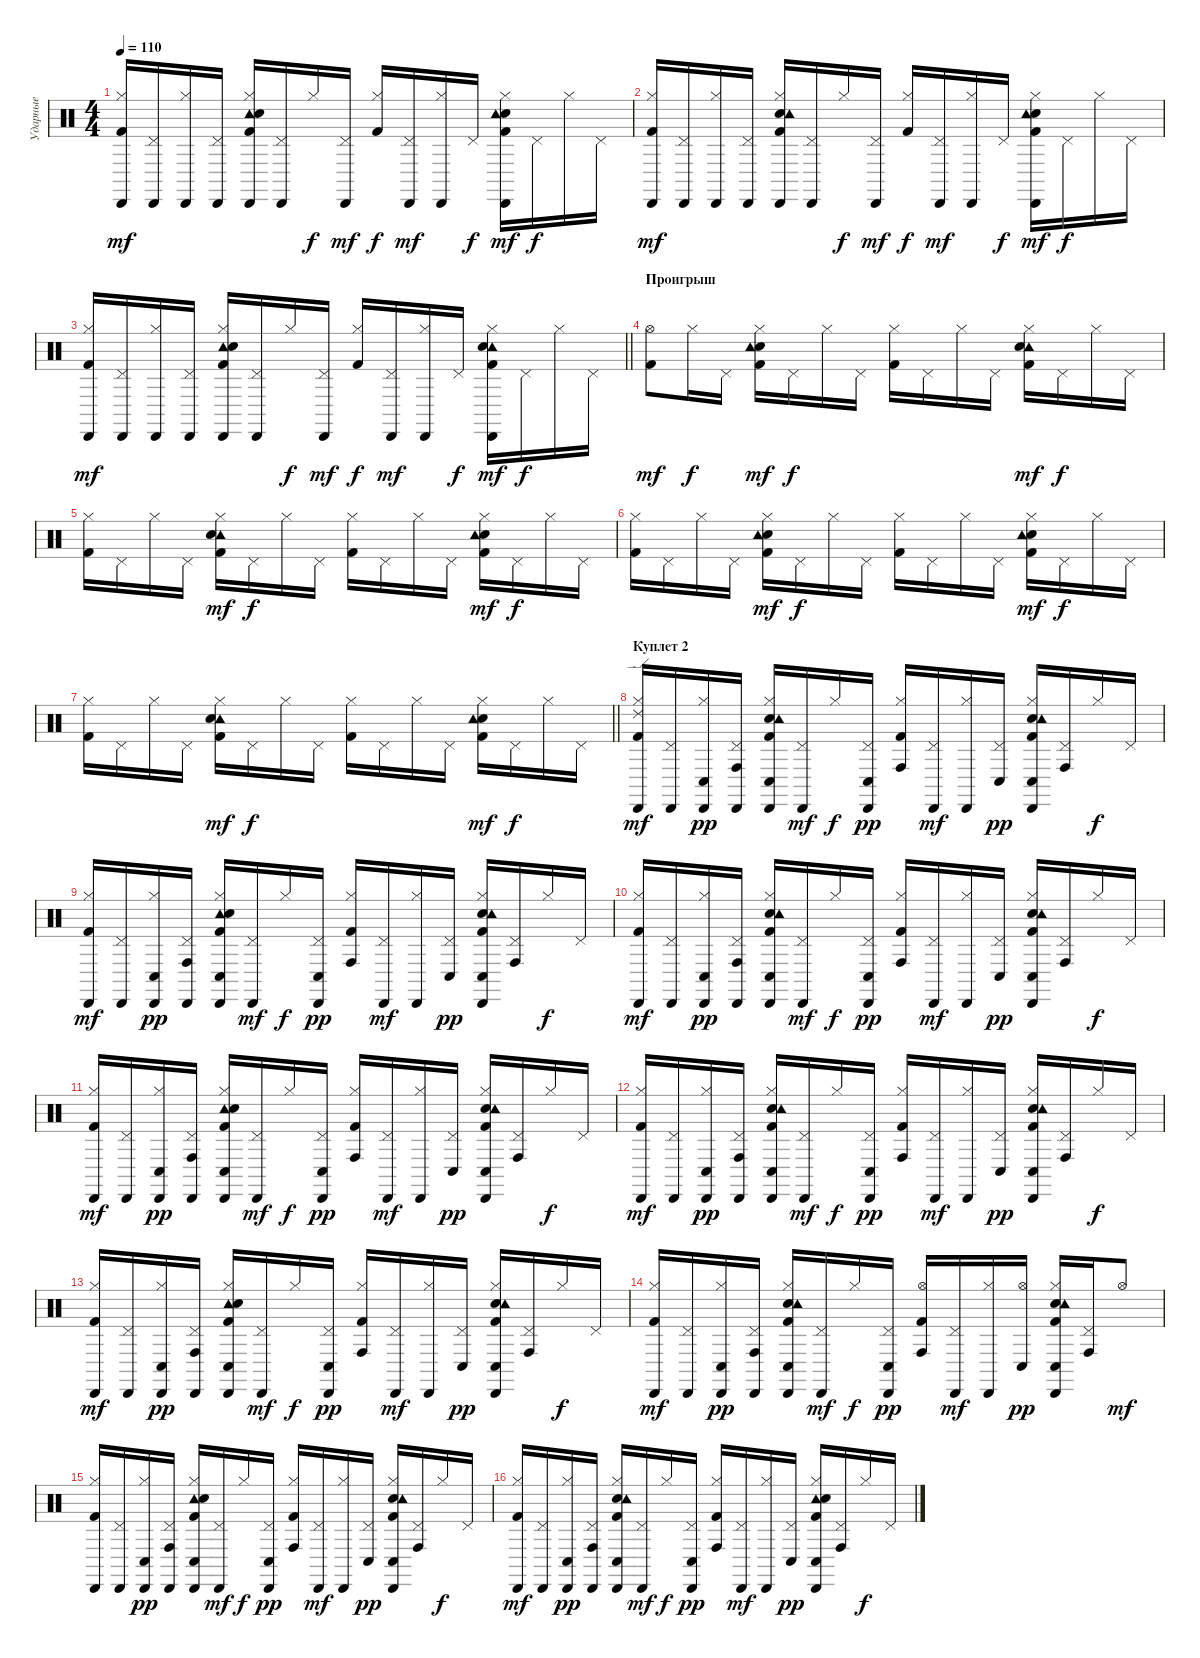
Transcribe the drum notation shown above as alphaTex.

\track ("Ударные" "Ударные") {instrument percussion}
\staff {score}
\articulation defaults
\ts (4 4)
\tempo 110
\clef neutral
\ks c
("Kick (hit) 2" "Hi-Hat (closed)" "Cabasa (hit)").16{dy mf} ("Pedal Hi-Hat (hit)" "Cabasa (hit)").16 ("Hi-Hat (closed)" "Cabasa (hit)").16 ("Pedal Hi-Hat (hit)" "Cabasa (hit)").16 ("Kick (hit) 2" "Tambourine (hit)" "Snare (hit) 2" "Hi-Hat (closed)" "Cabasa (hit)").16 ("Pedal Hi-Hat (hit)" "Cabasa (hit)").16 "Hi-Hat (closed)".16{dy f} ("Pedal Hi-Hat (hit)" "Cabasa (hit)").16{dy mf} ("Kick (hit) 2" "Hi-Hat (closed)").16{dy f} ("Pedal Hi-Hat (hit)" "Cabasa (hit)").16{dy mf} ("Hi-Hat (closed)" "Cabasa (hit)").16 "Pedal Hi-Hat (hit)".16{dy f} ("Snare (hit) 2" "Kick (hit) 2" "Tambourine (hit)" "Hi-Hat (closed)" "Cabasa (hit)").16{dy mf} "Pedal Hi-Hat (hit)".16{dy f} "Hi-Hat (closed)".16 "Pedal Hi-Hat (hit)".16 |
("Kick (hit) 2" "Hi-Hat (closed)" "Cabasa (hit)").16{dy mf} ("Pedal Hi-Hat (hit)" "Cabasa (hit)").16 ("Hi-Hat (closed)" "Cabasa (hit)").16 ("Pedal Hi-Hat (hit)" "Cabasa (hit)").16 ("Snare (hit) 2" "Kick (hit) 2" "Tambourine (hit)" "Hi-Hat (closed)" "Cabasa (hit)").16 ("Pedal Hi-Hat (hit)" "Cabasa (hit)").16 "Hi-Hat (closed)".16{dy f} ("Pedal Hi-Hat (hit)" "Cabasa (hit)").16{dy mf} ("Kick (hit) 2" "Hi-Hat (closed)").16{dy f} ("Pedal Hi-Hat (hit)" "Cabasa (hit)").16{dy mf} ("Hi-Hat (closed)" "Cabasa (hit)").16 "Pedal Hi-Hat (hit)".16{dy f} ("Kick (hit) 2" "Snare (hit) 2" "Tambourine (hit)" "Hi-Hat (closed)" "Cabasa (hit)").16{dy mf} "Pedal Hi-Hat (hit)".16{dy f} "Hi-Hat (closed)".16 "Pedal Hi-Hat (hit)".16 |
\barLineRight lightlight
("Kick (hit) 2" "Hi-Hat (closed)" "Cabasa (hit)").16{dy mf} ("Pedal Hi-Hat (hit)" "Cabasa (hit)").16 ("Hi-Hat (closed)" "Cabasa (hit)").16 ("Pedal Hi-Hat (hit)" "Cabasa (hit)").16 ("Tambourine (hit)" "Snare (hit) 2" "Kick (hit) 2" "Hi-Hat (closed)" "Cabasa (hit)").16 ("Pedal Hi-Hat (hit)" "Cabasa (hit)").16 "Hi-Hat (closed)".16{dy f} ("Pedal Hi-Hat (hit)" "Cabasa (hit)").16{dy mf} ("Kick (hit) 2" "Hi-Hat (closed)").16{dy f} ("Pedal Hi-Hat (hit)" "Cabasa (hit)").16{dy mf} ("Hi-Hat (closed)" "Cabasa (hit)").16 "Pedal Hi-Hat (hit)".16{dy f} ("Kick (hit) 2" "Tambourine (hit)" "Snare (hit) 2" "Hi-Hat (closed)" "Cabasa (hit)").16{dy mf} "Pedal Hi-Hat (hit)".16{dy f} "Hi-Hat (closed)".16 "Pedal Hi-Hat (hit)".16 |
\section ("" "Проигрыш")
("Kick (hit) 2" "Hi-Hat (open)").8{dy mf} "Hi-Hat (closed)".16{dy f} "Pedal Hi-Hat (hit)".16 ("Kick (hit) 2" "Snare (hit) 2" "Tambourine (hit)" "Hi-Hat (closed)").16{dy mf} "Pedal Hi-Hat (hit)".16{dy f} "Hi-Hat (closed)".16 "Pedal Hi-Hat (hit)".16 ("Kick (hit) 2" "Hi-Hat (closed)").16 "Pedal Hi-Hat (hit)".16 "Hi-Hat (closed)".16 "Pedal Hi-Hat (hit)".16 ("Kick (hit) 2" "Tambourine (hit)" "Snare (hit) 2" "Hi-Hat (closed)").16{dy mf} "Pedal Hi-Hat (hit)".16{dy f} "Hi-Hat (closed)".16 "Pedal Hi-Hat (hit)".16 |
("Kick (hit) 2" "Hi-Hat (closed)").16 "Pedal Hi-Hat (hit)".16 "Hi-Hat (closed)".16 "Pedal Hi-Hat (hit)".16 ("Tambourine (hit)" "Snare (hit) 2" "Kick (hit) 2" "Hi-Hat (closed)").16{dy mf} "Pedal Hi-Hat (hit)".16{dy f} "Hi-Hat (closed)".16 "Pedal Hi-Hat (hit)".16 ("Kick (hit) 2" "Hi-Hat (closed)").16 "Pedal Hi-Hat (hit)".16 "Hi-Hat (closed)".16 "Pedal Hi-Hat (hit)".16 ("Snare (hit) 2" "Tambourine (hit)" "Kick (hit) 2" "Hi-Hat (closed)").16{dy mf} "Pedal Hi-Hat (hit)".16{dy f} "Hi-Hat (closed)".16 "Pedal Hi-Hat (hit)".16 |
("Kick (hit) 2" "Hi-Hat (closed)").16 "Pedal Hi-Hat (hit)".16 "Hi-Hat (closed)".16 "Pedal Hi-Hat (hit)".16 ("Snare (hit) 2" "Kick (hit) 2" "Tambourine (hit)" "Hi-Hat (closed)").16{dy mf} "Pedal Hi-Hat (hit)".16{dy f} "Hi-Hat (closed)".16 "Pedal Hi-Hat (hit)".16 ("Kick (hit) 2" "Hi-Hat (closed)").16 "Pedal Hi-Hat (hit)".16 "Hi-Hat (closed)".16 "Pedal Hi-Hat (hit)".16 ("Kick (hit) 2" "Snare (hit) 2" "Tambourine (hit)" "Hi-Hat (closed)").16{dy mf} "Pedal Hi-Hat (hit)".16{dy f} "Hi-Hat (closed)".16 "Pedal Hi-Hat (hit)".16 |
\barLineRight lightlight
("Kick (hit) 2" "Hi-Hat (closed)").16 "Pedal Hi-Hat (hit)".16 "Hi-Hat (closed)".16 "Pedal Hi-Hat (hit)".16 ("Tambourine (hit)" "Snare (hit) 2" "Kick (hit) 2" "Hi-Hat (closed)").16{dy mf} "Pedal Hi-Hat (hit)".16{dy f} "Hi-Hat (closed)".16 "Pedal Hi-Hat (hit)".16 ("Kick (hit) 2" "Hi-Hat (closed)").16 "Pedal Hi-Hat (hit)".16 "Hi-Hat (closed)".16 "Pedal Hi-Hat (hit)".16 ("Kick (hit) 2" "Snare (hit) 2" "Tambourine (hit)" "Hi-Hat (closed)").16{dy mf} "Pedal Hi-Hat (hit)".16{dy f} "Hi-Hat (closed)".16 "Pedal Hi-Hat (hit)".16 |
\section ("" "Куплет 2")
("Kick (hit) 2" "Hi-Hat (closed)" "Ride (edge) 2" "Cabasa (hit)").16{dy mf} ("Pedal Hi-Hat (hit)" "Cabasa (hit)").16 ("Hi-Hat (closed)" "Cabasa (hit)" "Conga low (hit)").16{dy pp} ("Pedal Hi-Hat (hit)" "Cabasa (hit)" "Conga high (hit)").16 ("Snare (hit) 2" "Kick (hit) 2" "Tambourine (hit)" "Hi-Hat (closed)" "Cabasa (hit)" "Conga low (hit)").16 ("Pedal Hi-Hat (hit)" "Cabasa (hit)").16{dy mf} "Hi-Hat (closed)".16{dy f} ("Pedal Hi-Hat (hit)" "Cabasa (hit)" "Conga low (hit)").16{dy pp} ("Kick (hit) 2" "Hi-Hat (closed)" "Conga high (hit)").16 ("Pedal Hi-Hat (hit)" "Cabasa (hit)").16{dy mf} ("Hi-Hat (closed)" "Cabasa (hit)").16 ("Pedal Hi-Hat (hit)" "Conga low (hit)").16{dy pp} ("Snare (hit) 2" "Tambourine (hit)" "Kick (hit) 2" "Hi-Hat (closed)" "Cabasa (hit)" "Conga low (hit)").16 ("Pedal Hi-Hat (hit)" "Conga high (hit)").16 "Hi-Hat (closed)".16{dy f} "Pedal Hi-Hat (hit)".16 |
("Kick (hit) 2" "Hi-Hat (closed)" "Cabasa (hit)").16{dy mf} ("Pedal Hi-Hat (hit)" "Cabasa (hit)").16 ("Hi-Hat (closed)" "Cabasa (hit)" "Conga low (hit)").16{dy pp} ("Pedal Hi-Hat (hit)" "Cabasa (hit)" "Conga high (hit)").16 ("Tambourine (hit)" "Snare (hit) 2" "Kick (hit) 2" "Hi-Hat (closed)" "Cabasa (hit)" "Conga low (hit)").16 ("Pedal Hi-Hat (hit)" "Cabasa (hit)").16{dy mf} "Hi-Hat (closed)".16{dy f} ("Pedal Hi-Hat (hit)" "Cabasa (hit)" "Conga low (hit)").16{dy pp} ("Kick (hit) 2" "Hi-Hat (closed)" "Conga high (hit)").16 ("Pedal Hi-Hat (hit)" "Cabasa (hit)").16{dy mf} ("Hi-Hat (closed)" "Cabasa (hit)").16 ("Pedal Hi-Hat (hit)" "Conga low (hit)").16{dy pp} ("Snare (hit) 2" "Tambourine (hit)" "Kick (hit) 2" "Hi-Hat (closed)" "Cabasa (hit)" "Conga low (hit)").16 ("Pedal Hi-Hat (hit)" "Conga high (hit)").16 "Hi-Hat (closed)".16{dy f} "Pedal Hi-Hat (hit)".16 |
("Kick (hit) 2" "Hi-Hat (closed)" "Cabasa (hit)").16{dy mf} ("Pedal Hi-Hat (hit)" "Cabasa (hit)").16 ("Hi-Hat (closed)" "Cabasa (hit)" "Conga low (hit)").16{dy pp} ("Pedal Hi-Hat (hit)" "Cabasa (hit)" "Conga high (hit)").16 ("Snare (hit) 2" "Kick (hit) 2" "Tambourine (hit)" "Hi-Hat (closed)" "Cabasa (hit)" "Conga low (hit)").16 ("Pedal Hi-Hat (hit)" "Cabasa (hit)").16{dy mf} "Hi-Hat (closed)".16{dy f} ("Pedal Hi-Hat (hit)" "Cabasa (hit)" "Conga low (hit)").16{dy pp} ("Kick (hit) 2" "Hi-Hat (closed)" "Conga high (hit)").16 ("Pedal Hi-Hat (hit)" "Cabasa (hit)").16{dy mf} ("Hi-Hat (closed)" "Cabasa (hit)").16 ("Pedal Hi-Hat (hit)" "Conga low (hit)").16{dy pp} ("Kick (hit) 2" "Snare (hit) 2" "Tambourine (hit)" "Hi-Hat (closed)" "Cabasa (hit)" "Conga low (hit)").16 ("Pedal Hi-Hat (hit)" "Conga high (hit)").16 "Hi-Hat (closed)".16{dy f} "Pedal Hi-Hat (hit)".16 |
("Kick (hit) 2" "Hi-Hat (closed)" "Cabasa (hit)").16{dy mf} ("Pedal Hi-Hat (hit)" "Cabasa (hit)").16 ("Hi-Hat (closed)" "Cabasa (hit)" "Conga low (hit)").16{dy pp} ("Pedal Hi-Hat (hit)" "Cabasa (hit)" "Conga high (hit)").16 ("Tambourine (hit)" "Kick (hit) 2" "Snare (hit) 2" "Hi-Hat (closed)" "Cabasa (hit)" "Conga low (hit)").16 ("Pedal Hi-Hat (hit)" "Cabasa (hit)").16{dy mf} "Hi-Hat (closed)".16{dy f} ("Pedal Hi-Hat (hit)" "Cabasa (hit)" "Conga low (hit)").16{dy pp} ("Kick (hit) 2" "Hi-Hat (closed)" "Conga high (hit)").16 ("Pedal Hi-Hat (hit)" "Cabasa (hit)").16{dy mf} ("Hi-Hat (closed)" "Cabasa (hit)").16 ("Pedal Hi-Hat (hit)" "Conga low (hit)").16{dy pp} ("Snare (hit) 2" "Tambourine (hit)" "Kick (hit) 2" "Hi-Hat (closed)" "Cabasa (hit)" "Conga low (hit)").16 ("Pedal Hi-Hat (hit)" "Conga high (hit)").16 "Hi-Hat (closed)".16{dy f} "Pedal Hi-Hat (hit)".16 |
("Kick (hit) 2" "Hi-Hat (closed)" "Cabasa (hit)").16{dy mf} ("Pedal Hi-Hat (hit)" "Cabasa (hit)").16 ("Hi-Hat (closed)" "Cabasa (hit)" "Conga low (hit)").16{dy pp} ("Pedal Hi-Hat (hit)" "Cabasa (hit)" "Conga high (hit)").16 ("Snare (hit) 2" "Kick (hit) 2" "Tambourine (hit)" "Hi-Hat (closed)" "Cabasa (hit)" "Conga low (hit)").16 ("Pedal Hi-Hat (hit)" "Cabasa (hit)").16{dy mf} "Hi-Hat (closed)".16{dy f} ("Pedal Hi-Hat (hit)" "Cabasa (hit)" "Conga low (hit)").16{dy pp} ("Kick (hit) 2" "Hi-Hat (closed)" "Conga high (hit)").16 ("Pedal Hi-Hat (hit)" "Cabasa (hit)").16{dy mf} ("Hi-Hat (closed)" "Cabasa (hit)").16 ("Pedal Hi-Hat (hit)" "Conga low (hit)").16{dy pp} ("Snare (hit) 2" "Tambourine (hit)" "Kick (hit) 2" "Hi-Hat (closed)" "Cabasa (hit)" "Conga low (hit)").16 ("Pedal Hi-Hat (hit)" "Conga high (hit)").16 "Hi-Hat (closed)".16{dy f} "Pedal Hi-Hat (hit)".16 |
("Kick (hit) 2" "Hi-Hat (closed)" "Cabasa (hit)").16{dy mf} ("Pedal Hi-Hat (hit)" "Cabasa (hit)").16 ("Hi-Hat (closed)" "Cabasa (hit)" "Conga low (hit)").16{dy pp} ("Pedal Hi-Hat (hit)" "Cabasa (hit)" "Conga high (hit)").16 ("Tambourine (hit)" "Snare (hit) 2" "Kick (hit) 2" "Hi-Hat (closed)" "Cabasa (hit)" "Conga low (hit)").16 ("Pedal Hi-Hat (hit)" "Cabasa (hit)").16{dy mf} "Hi-Hat (closed)".16{dy f} ("Pedal Hi-Hat (hit)" "Cabasa (hit)" "Conga low (hit)").16{dy pp} ("Kick (hit) 2" "Hi-Hat (closed)" "Conga high (hit)").16 ("Pedal Hi-Hat (hit)" "Cabasa (hit)").16{dy mf} ("Hi-Hat (closed)" "Cabasa (hit)").16 ("Pedal Hi-Hat (hit)" "Conga low (hit)").16{dy pp} ("Snare (hit) 2" "Kick (hit) 2" "Tambourine (hit)" "Hi-Hat (closed)" "Cabasa (hit)" "Conga low (hit)").16 ("Pedal Hi-Hat (hit)" "Conga high (hit)").16 "Hi-Hat (closed)".16{dy f} "Pedal Hi-Hat (hit)".16 |
("Kick (hit) 2" "Hi-Hat (closed)" "Cabasa (hit)").16{dy mf} ("Pedal Hi-Hat (hit)" "Cabasa (hit)").16 ("Hi-Hat (closed)" "Cabasa (hit)" "Conga low (hit)").16{dy pp} ("Pedal Hi-Hat (hit)" "Cabasa (hit)" "Conga high (hit)").16 ("Kick (hit) 2" "Snare (hit) 2" "Tambourine (hit)" "Hi-Hat (closed)" "Cabasa (hit)" "Conga low (hit)").16 ("Pedal Hi-Hat (hit)" "Cabasa (hit)").16{dy mf} "Hi-Hat (closed)".16{dy f} ("Pedal Hi-Hat (hit)" "Cabasa (hit)" "Conga low (hit)").16{dy pp} ("Kick (hit) 2" "Hi-Hat (open)" "Conga high (hit)").16 ("Pedal Hi-Hat (hit)" "Cabasa (hit)").16{dy mf} ("Hi-Hat (closed)" "Cabasa (hit)").16 ("Hi-Hat (open)" "Conga low (hit)").16{dy pp} ("Snare (hit) 2" "Kick (hit) 2" "Tambourine (hit)" "Hi-Hat (closed)" "Cabasa (hit)" "Conga low (hit)").16 ("Pedal Hi-Hat (hit)" "Conga high (hit)").16 "Hi-Hat (open)".8{dy mf} |
("Kick (hit) 2" "Hi-Hat (closed)" "Cabasa (hit)").16 ("Pedal Hi-Hat (hit)" "Cabasa (hit)").16 ("Hi-Hat (closed)" "Cabasa (hit)" "Conga low (hit)").16{dy pp} ("Pedal Hi-Hat (hit)" "Cabasa (hit)" "Conga high (hit)").16 ("Tambourine (hit)" "Kick (hit) 2" "Snare (hit) 2" "Hi-Hat (closed)" "Cabasa (hit)" "Conga low (hit)").16 ("Pedal Hi-Hat (hit)" "Cabasa (hit)").16{dy mf} "Hi-Hat (closed)".16{dy f} ("Pedal Hi-Hat (hit)" "Cabasa (hit)" "Conga low (hit)").16{dy pp} ("Kick (hit) 2" "Hi-Hat (closed)" "Conga high (hit)").16 ("Pedal Hi-Hat (hit)" "Cabasa (hit)").16{dy mf} ("Hi-Hat (closed)" "Cabasa (hit)").16 ("Pedal Hi-Hat (hit)" "Conga low (hit)").16{dy pp} ("Snare (hit) 2" "Kick (hit) 2" "Tambourine (hit)" "Hi-Hat (closed)" "Cabasa (hit)" "Conga low (hit)").16 ("Pedal Hi-Hat (hit)" "Conga high (hit)").16 "Hi-Hat (closed)".16{dy f} "Pedal Hi-Hat (hit)".16 |
("Kick (hit) 2" "Hi-Hat (closed)" "Cabasa (hit)").16{dy mf} ("Pedal Hi-Hat (hit)" "Cabasa (hit)").16 ("Hi-Hat (closed)" "Cabasa (hit)" "Conga low (hit)").16{dy pp} ("Pedal Hi-Hat (hit)" "Cabasa (hit)" "Conga high (hit)").16 ("Snare (hit) 2" "Kick (hit) 2" "Tambourine (hit)" "Hi-Hat (closed)" "Cabasa (hit)" "Conga low (hit)").16 ("Pedal Hi-Hat (hit)" "Cabasa (hit)").16{dy mf} "Hi-Hat (closed)".16{dy f} ("Pedal Hi-Hat (hit)" "Cabasa (hit)" "Conga low (hit)").16{dy pp} ("Kick (hit) 2" "Hi-Hat (closed)" "Conga high (hit)").16 ("Pedal Hi-Hat (hit)" "Cabasa (hit)").16{dy mf} ("Hi-Hat (closed)" "Cabasa (hit)").16 ("Pedal Hi-Hat (hit)" "Conga low (hit)").16{dy pp} ("Tambourine (hit)" "Snare (hit) 2" "Kick (hit) 2" "Hi-Hat (closed)" "Cabasa (hit)" "Conga low (hit)").16 ("Pedal Hi-Hat (hit)" "Conga high (hit)").16 "Hi-Hat (closed)".16{dy f} "Pedal Hi-Hat (hit)".16
